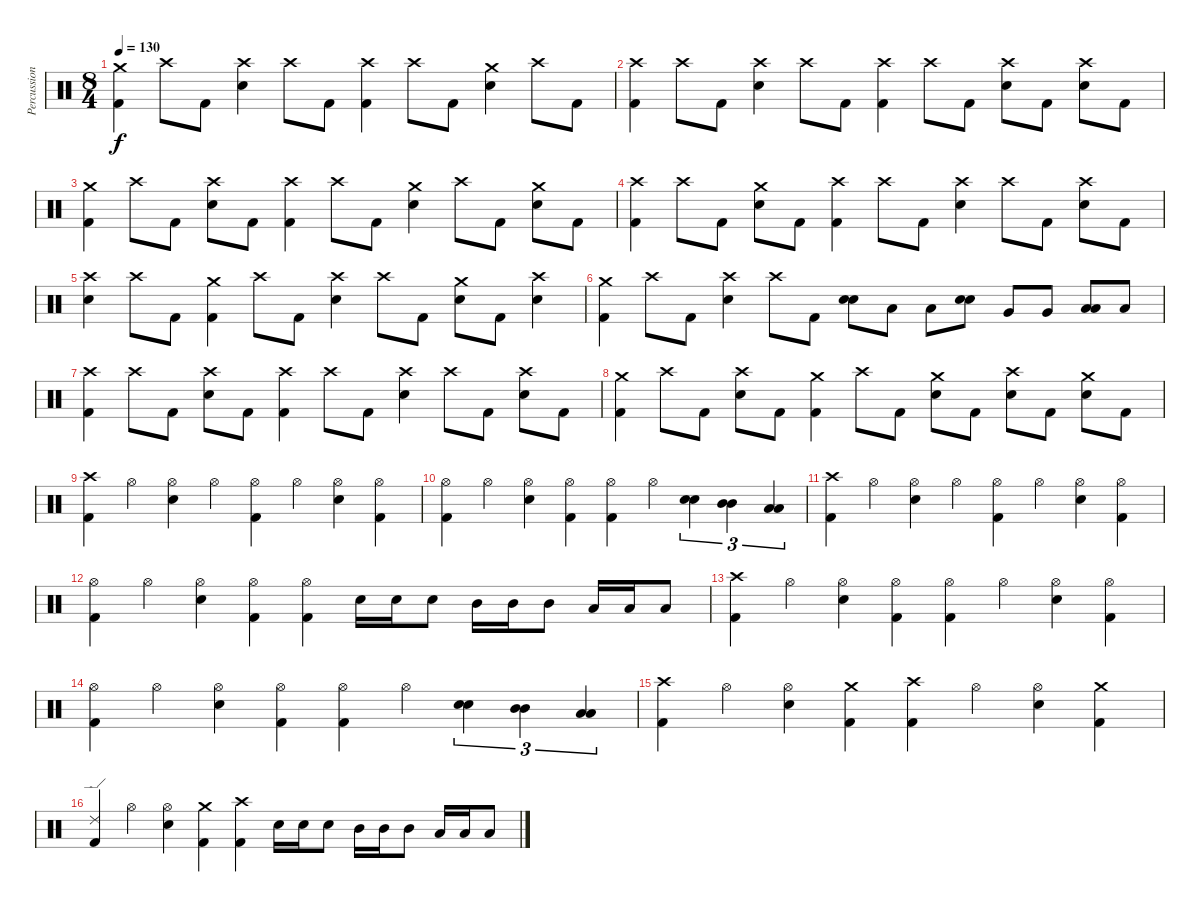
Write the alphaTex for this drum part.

\track ("Percussion" "Percussion") {instrument percussion}
\staff {score}
\articulation defaults
\ts (8 4)
\tempo 130
\clef neutral
\ks c
("Crash medium (hit)" "Kick (hit) 2").4{dy f} "Crash high (hit)".8 "Kick (hit) 2".8 ("Crash high (hit)" "Electric Snare (hit)").4 "Crash high (hit)".8 "Kick (hit) 2".8 ("Crash high (hit)" "Kick (hit) 2").4 "Crash high (hit)".8 "Kick (hit) 2".8 ("Crash medium (hit)" "Electric Snare (hit)").4 "Crash high (hit)".8 "Kick (hit) 2".8 |
("Crash high (hit)" "Kick (hit) 2").4 "Crash high (hit)".8 "Kick (hit) 2".8 ("Crash high (hit)" "Electric Snare (hit)").4 "Crash high (hit)".8 "Kick (hit) 2".8 ("Crash high (hit)" "Kick (hit) 2").4 "Crash high (hit)".8 "Kick (hit) 2".8 ("Crash high (hit)" "Electric Snare (hit)").8 "Kick (hit) 2".8 ("Crash high (hit)" "Electric Snare (hit)").8 "Kick (hit) 2".8 |
("Crash medium (hit)" "Kick (hit) 2").4 "Crash high (hit)".8 "Kick (hit) 2".8 ("Crash high (hit)" "Electric Snare (hit)").8 "Kick (hit) 2".8 ("Crash high (hit)" "Kick (hit) 2").4 "Crash high (hit)".8 "Kick (hit) 2".8 ("Crash medium (hit)" "Electric Snare (hit)").4 "Crash high (hit)".8 "Kick (hit) 2".8 ("Crash medium (hit)" "Electric Snare (hit)").8 "Kick (hit) 2".8 |
("Crash high (hit)" "Kick (hit) 2").4 "Crash high (hit)".8 "Kick (hit) 2".8 ("Crash medium (hit)" "Electric Snare (hit)").8 "Kick (hit) 2".8 ("Crash high (hit)" "Kick (hit) 2").4 "Crash high (hit)".8 "Kick (hit) 2".8 ("Crash high (hit)" "Electric Snare (hit)").4 "Crash high (hit)".8 "Kick (hit) 2".8 ("Crash high (hit)" "Electric Snare (hit)").8 "Kick (hit) 2".8 |
("Crash high (hit)" "Electric Snare (hit)").4 "Crash high (hit)".8 "Kick (hit) 2".8 ("Crash medium (hit)" "Kick (hit) 2").4 "Crash high (hit)".8 "Kick (hit) 2".8 ("Crash high (hit)" "Electric Snare (hit)").4 "Crash high (hit)".8 "Kick (hit) 2".8 ("Crash medium (hit)" "Electric Snare (hit)").8 "Kick (hit) 2".8 ("Crash high (hit)" "Electric Snare (hit)").4 |
("Crash medium (hit)" "Kick (hit) 2").4 "Crash high (hit)".8 "Kick (hit) 2".8 ("Crash high (hit)" "Electric Snare (hit)").4 "Crash high (hit)".8 "Kick (hit) 2".8 ("Electric Snare (hit)" "Electric Snare (hit)").8{bu 60} "Low Tom (hit)".8 "Low Tom (hit)".8 ("Electric Snare (hit)" "Electric Snare (hit)").8{bu 60} "Very Low Tom (hit)".8 "Very Low Tom (hit)".8 ("Low Floor Tom (hit)" "Low Floor Tom (hit)").8{bu 60} "Low Floor Tom (hit)".8 |
("Crash high (hit)" "Kick (hit) 2").4 "Crash high (hit)".8 "Kick (hit) 2".8 ("Crash high (hit)" "Electric Snare (hit)").8 "Kick (hit) 2".8 ("Crash high (hit)" "Kick (hit) 2").4 "Crash high (hit)".8 "Kick (hit) 2".8 ("Crash high (hit)" "Electric Snare (hit)").4 "Crash high (hit)".8 "Kick (hit) 2".8 ("Crash high (hit)" "Electric Snare (hit)").8 "Kick (hit) 2".8 |
("Crash medium (hit)" "Kick (hit) 2").4 "Crash high (hit)".8 "Kick (hit) 2".8 ("Crash high (hit)" "Electric Snare (hit)").8 "Kick (hit) 2".8 ("Crash medium (hit)" "Kick (hit) 2").4 "Crash high (hit)".8 "Kick (hit) 2".8 ("Crash medium (hit)" "Electric Snare (hit)").8 "Kick (hit) 2".8 ("Crash high (hit)" "Electric Snare (hit)").8 "Kick (hit) 2".8 ("Crash medium (hit)" "Electric Snare (hit)").8 "Kick (hit) 2".8 |
("Crash high (hit)" "Kick (hit) 2").4 "Hi-Hat (open)".4 ("Hi-Hat (open)" "Electric Snare (hit)").4 "Hi-Hat (open)".4 ("Hi-Hat (open)" "Kick (hit) 2").4 "Hi-Hat (open)".4 ("Hi-Hat (open)" "Electric Snare (hit)").4 ("Hi-Hat (open)" "Kick (hit) 2").4 |
("Hi-Hat (open)" "Kick (hit) 2").4 "Hi-Hat (open)".4 ("Hi-Hat (open)" "Electric Snare (hit)").4 ("Hi-Hat (open)" "Kick (hit) 2").4 ("Hi-Hat (open)" "Kick (hit) 2").4 "Hi-Hat (open)".4 ("Electric Snare (hit)" "Electric Snare (hit)").4{tu (3 2) bu 60} ("Mid Tom (hit)" "Mid Tom (hit)").4{tu (3 2) bu 60} ("Low Tom (hit)" "Low Tom (hit)").4{tu (3 2) bu 60} |
("Crash high (hit)" "Kick (hit) 2").4 "Hi-Hat (open)".4 ("Hi-Hat (open)" "Electric Snare (hit)").4 "Hi-Hat (open)".4 ("Hi-Hat (open)" "Kick (hit) 2").4 "Hi-Hat (open)".4 ("Hi-Hat (open)" "Electric Snare (hit)").4 ("Hi-Hat (open)" "Kick (hit) 2").4 |
("Hi-Hat (open)" "Kick (hit) 2").4 "Hi-Hat (open)".4 ("Hi-Hat (open)" "Electric Snare (hit)").4 ("Hi-Hat (open)" "Kick (hit) 2").4 ("Hi-Hat (open)" "Kick (hit) 2").4 "Electric Snare (hit)".16 "Electric Snare (hit)".16 "Electric Snare (hit)".8 "Mid Tom (hit)".16 "Mid Tom (hit)".16 "Mid Tom (hit)".8 "Low Tom (hit)".16 "Low Tom (hit)".16 "Low Tom (hit)".8 |
("Crash high (hit)" "Kick (hit) 2").4 "Hi-Hat (open)".4 ("Hi-Hat (open)" "Electric Snare (hit)").4 ("Hi-Hat (open)" "Kick (hit) 2").4 ("Hi-Hat (open)" "Kick (hit) 2").4 "Hi-Hat (open)".4 ("Hi-Hat (open)" "Electric Snare (hit)").4 ("Hi-Hat (open)" "Kick (hit) 2").4 |
("Hi-Hat (open)" "Kick (hit) 2").4 "Hi-Hat (open)".4 ("Hi-Hat (open)" "Electric Snare (hit)").4 ("Hi-Hat (open)" "Kick (hit) 2").4 ("Hi-Hat (open)" "Kick (hit) 2").4 "Hi-Hat (open)".4 ("Electric Snare (hit)" "Electric Snare (hit)").4{tu (3 2) bu 60} ("Mid Tom (hit)" "Mid Tom (hit)").4{tu (3 2) bu 60} ("Low Tom (hit)" "Low Tom (hit)").4{tu (3 2) bu 60} |
("Crash high (hit)" "Kick (hit) 2").4 "Hi-Hat (open)".4 ("Hi-Hat (open)" "Electric Snare (hit)").4 ("Crash medium (hit)" "Kick (hit) 2").4 ("Crash high (hit)" "Kick (hit) 2").4 "Hi-Hat (open)".4 ("Hi-Hat (open)" "Electric Snare (hit)").4 ("Crash medium (hit)" "Kick (hit) 2").4 |
("Ride (edge) 2" "Kick (hit) 2").4 "Hi-Hat (open)".4 ("Hi-Hat (open)" "Electric Snare (hit)").4 ("Crash medium (hit)" "Kick (hit) 2").4 ("Crash high (hit)" "Kick (hit) 2").4 "Electric Snare (hit)".16 "Electric Snare (hit)".16 "Electric Snare (hit)".8 "Mid Tom (hit)".16 "Mid Tom (hit)".16 "Mid Tom (hit)".8 "Low Tom (hit)".16 "Low Tom (hit)".16 "Low Tom (hit)".8
